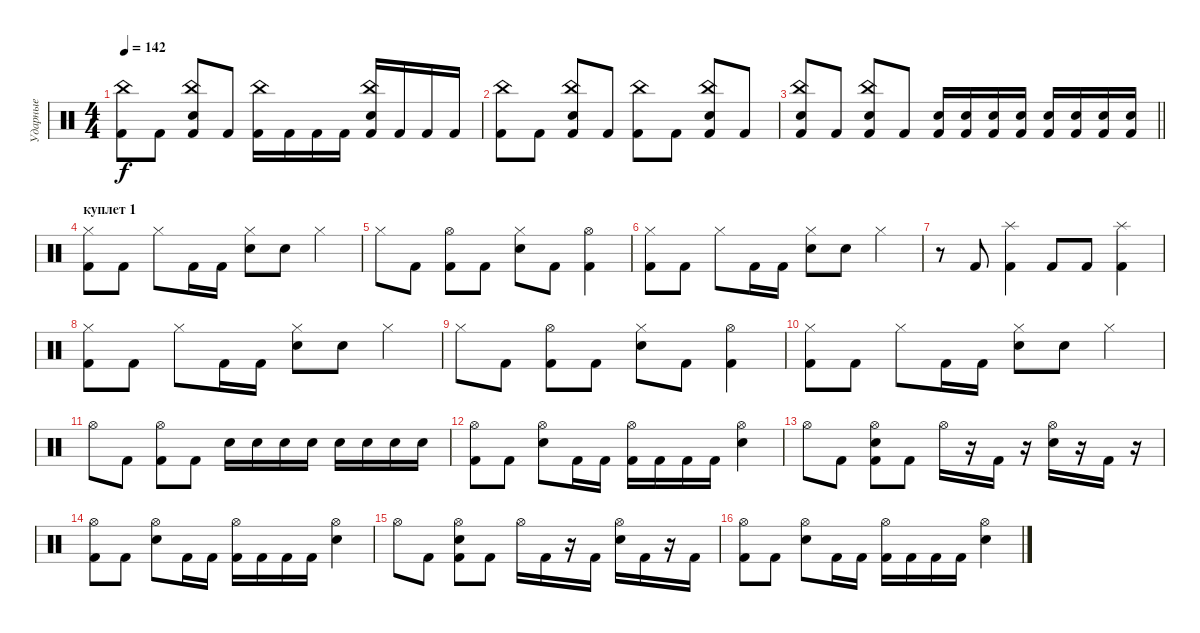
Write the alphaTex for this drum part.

\track ("Ударные" "Ударные") {instrument percussion}
\staff {score}
\articulation defaults
\ts (4 4)
\tempo 142
\clef neutral
\ks c
("Kick (hit) 2" "China (hit)").8{dy f} "Kick (hit) 2".8 ("Kick (hit) 2" "Snare (hit) 2" "China (hit)").8 "Kick (hit) 2".8 ("Kick (hit) 2" "China (hit)").16 "Kick (hit) 2".16 "Kick (hit) 2".16 "Kick (hit) 2".16 ("Kick (hit) 2" "Snare (hit) 2" "China (hit)").16 "Kick (hit) 2".16 "Kick (hit) 2".16 "Kick (hit) 2".16 |
("Kick (hit) 2" "China (hit)").8 "Kick (hit) 2".8 ("Kick (hit) 2" "Snare (hit) 2" "China (hit)").8 "Kick (hit) 2".8 ("Kick (hit) 2" "China (hit)").8 "Kick (hit) 2".8 ("Kick (hit) 2" "Snare (hit) 2" "China (hit)").8 "Kick (hit) 2".8 |
\barLineRight lightlight
("Kick (hit) 2" "Snare (hit) 2" "China (hit)").8 "Kick (hit) 2".8 ("Kick (hit) 2" "Snare (hit) 2" "China (hit)").8 "Kick (hit) 2".8 ("Kick (hit) 2" "Snare (hit) 2").16 ("Kick (hit) 2" "Snare (hit) 2").16 ("Kick (hit) 2" "Snare (hit) 2").16 ("Kick (hit) 2" "Snare (hit) 2").16 ("Kick (hit) 2" "Snare (hit) 2").16 ("Kick (hit) 2" "Snare (hit) 2").16 ("Kick (hit) 2" "Snare (hit) 2").16 ("Kick (hit) 2" "Snare (hit) 2").16 |
\section ("" "куплет 1")
("Kick (hit) 2" "Hi-Hat (closed)").8 "Kick (hit) 2".8 "Hi-Hat (closed)".8 "Kick (hit) 2".16 "Kick (hit) 2".16 ("Snare (hit) 2" "Hi-Hat (closed)").8 "Snare (hit) 2".8 "Hi-Hat (closed)".4 |
"Hi-Hat (closed)".8 "Kick (hit) 2".8 ("Kick (hit) 2" "Hi-Hat (open)").8 "Kick (hit) 2".8 ("Snare (hit) 2" "Hi-Hat (closed)").8 "Kick (hit) 2".8 ("Kick (hit) 2" "Hi-Hat (open)").4 |
("Kick (hit) 2" "Hi-Hat (closed)").8 "Kick (hit) 2".8 "Hi-Hat (closed)".8 "Kick (hit) 2".16 "Kick (hit) 2".16 ("Snare (hit) 2" "Hi-Hat (closed)").8 "Snare (hit) 2".8 "Hi-Hat (closed)".4 |
r.8 "Kick (hit) 2".8 ("Kick (hit) 2" "Splash (hit)").4 "Kick (hit) 2".8 "Kick (hit) 2".8 ("Kick (hit) 2" "Splash (hit)").4 |
("Kick (hit) 2" "Hi-Hat (closed)").8 "Kick (hit) 2".8 "Hi-Hat (closed)".8 "Kick (hit) 2".16 "Kick (hit) 2".16 ("Snare (hit) 2" "Hi-Hat (closed)").8 "Snare (hit) 2".8 "Hi-Hat (closed)".4 |
"Hi-Hat (closed)".8 "Kick (hit) 2".8 ("Kick (hit) 2" "Hi-Hat (open)").8 "Kick (hit) 2".8 ("Snare (hit) 2" "Hi-Hat (closed)").8 "Kick (hit) 2".8 ("Kick (hit) 2" "Hi-Hat (open)").4 |
("Kick (hit) 2" "Hi-Hat (closed)").8 "Kick (hit) 2".8 "Hi-Hat (closed)".8 "Kick (hit) 2".16 "Kick (hit) 2".16 ("Snare (hit) 2" "Hi-Hat (closed)").8 "Snare (hit) 2".8 "Hi-Hat (closed)".4 |
"Hi-Hat (open)".8 "Kick (hit) 2".8 ("Kick (hit) 2" "Hi-Hat (open)").8 "Kick (hit) 2".8 "Snare (hit) 2".16 "Snare (hit) 2".16 "Snare (hit) 2".16 "Snare (hit) 2".16 "Snare (hit) 2".16 "Snare (hit) 2".16 "Snare (hit) 2".16 "Snare (hit) 2".16 |
("Kick (hit) 2" "Hi-Hat (open)").8 "Kick (hit) 2".8 ("Snare (hit) 2" "Hi-Hat (open)").8 "Kick (hit) 2".16 "Kick (hit) 2".16 ("Kick (hit) 2" "Hi-Hat (open)").16 "Kick (hit) 2".16 "Kick (hit) 2".16 "Kick (hit) 2".16 ("Snare (hit) 2" "Hi-Hat (open)").4 |
"Hi-Hat (open)".8 "Kick (hit) 2".8 ("Kick (hit) 2" "Snare (hit) 2" "Hi-Hat (open)").8 "Kick (hit) 2".8 "Hi-Hat (open)".16 r.16 "Kick (hit) 2".16 r.16 ("Snare (hit) 2" "Hi-Hat (open)").16 r.16 "Kick (hit) 2".16 r.16 |
("Kick (hit) 2" "Hi-Hat (open)").8 "Kick (hit) 2".8 ("Snare (hit) 2" "Hi-Hat (open)").8 "Kick (hit) 2".16 "Kick (hit) 2".16 ("Kick (hit) 2" "Hi-Hat (open)").16 "Kick (hit) 2".16 "Kick (hit) 2".16 "Kick (hit) 2".16 ("Snare (hit) 2" "Hi-Hat (open)").4 |
"Hi-Hat (open)".8 "Kick (hit) 2".8 ("Kick (hit) 2" "Snare (hit) 2" "Hi-Hat (open)").8 "Kick (hit) 2".8 "Hi-Hat (open)".16 "Kick (hit) 2".16 r.16 "Kick (hit) 2".16 ("Snare (hit) 2" "Hi-Hat (open)").16 "Kick (hit) 2".16 r.16 "Kick (hit) 2".16 |
("Kick (hit) 2" "Hi-Hat (open)").8 "Kick (hit) 2".8 ("Snare (hit) 2" "Hi-Hat (open)").8 "Kick (hit) 2".16 "Kick (hit) 2".16 ("Kick (hit) 2" "Hi-Hat (open)").16 "Kick (hit) 2".16 "Kick (hit) 2".16 "Kick (hit) 2".16 ("Snare (hit) 2" "Hi-Hat (open)").4
